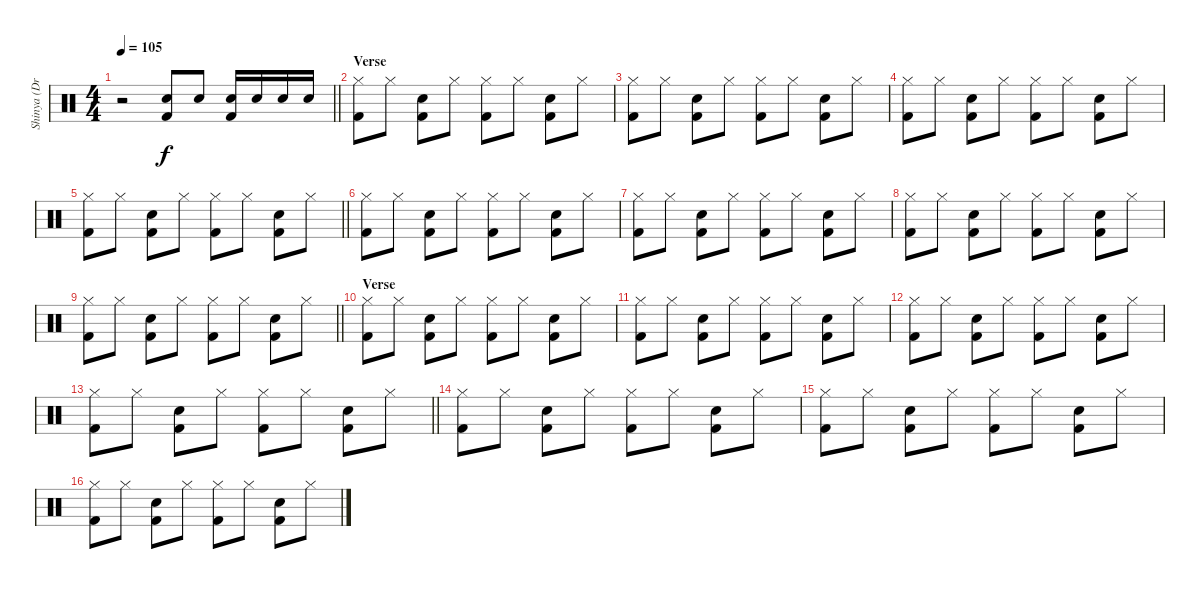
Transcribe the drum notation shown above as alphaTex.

\track ("Shinya (Drums)" "Shinya (Dr") {instrument percussion}
\staff {score}
\articulation defaults
\ts (4 4)
\tempo 105
\clef neutral
\barLineRight lightlight
\ks c
r.2{dy f} ("Snare (hit) 2" "Kick (hit) 2").8 "Snare (hit) 2".8 ("Snare (hit) 2" "Kick (hit) 2").16 "Snare (hit) 2".16 "Snare (hit) 2".16 "Snare (hit) 2".16 |
\section ("" "Verse")
("Hi-Hat (closed)" "Kick (hit) 2").8 "Hi-Hat (closed)".8 ("Snare (hit) 2" "Kick (hit) 2").8 "Hi-Hat (closed)".8 ("Hi-Hat (closed)" "Kick (hit) 2").8 "Hi-Hat (closed)".8 ("Snare (hit) 2" "Kick (hit) 2").8 "Hi-Hat (closed)".8 |
("Hi-Hat (closed)" "Kick (hit) 2").8 "Hi-Hat (closed)".8 ("Snare (hit) 2" "Kick (hit) 2").8 "Hi-Hat (closed)".8 ("Hi-Hat (closed)" "Kick (hit) 2").8 "Hi-Hat (closed)".8 ("Snare (hit) 2" "Kick (hit) 2").8 "Hi-Hat (closed)".8 |
("Hi-Hat (closed)" "Kick (hit) 2").8 "Hi-Hat (closed)".8 ("Snare (hit) 2" "Kick (hit) 2").8 "Hi-Hat (closed)".8 ("Hi-Hat (closed)" "Kick (hit) 2").8 "Hi-Hat (closed)".8 ("Snare (hit) 2" "Kick (hit) 2").8 "Hi-Hat (closed)".8 |
\barLineRight lightlight
("Hi-Hat (closed)" "Kick (hit) 2").8 "Hi-Hat (closed)".8 ("Snare (hit) 2" "Kick (hit) 2").8 "Hi-Hat (closed)".8 ("Hi-Hat (closed)" "Kick (hit) 2").8 "Hi-Hat (closed)".8 ("Snare (hit) 2" "Kick (hit) 2").8 "Hi-Hat (closed)".8 |
("Hi-Hat (closed)" "Kick (hit) 2").8 "Hi-Hat (closed)".8 ("Snare (hit) 2" "Kick (hit) 2").8 "Hi-Hat (closed)".8 ("Hi-Hat (closed)" "Kick (hit) 2").8 "Hi-Hat (closed)".8 ("Snare (hit) 2" "Kick (hit) 2").8 "Hi-Hat (closed)".8 |
("Hi-Hat (closed)" "Kick (hit) 2").8 "Hi-Hat (closed)".8 ("Snare (hit) 2" "Kick (hit) 2").8 "Hi-Hat (closed)".8 ("Hi-Hat (closed)" "Kick (hit) 2").8 "Hi-Hat (closed)".8 ("Snare (hit) 2" "Kick (hit) 2").8 "Hi-Hat (closed)".8 |
("Hi-Hat (closed)" "Kick (hit) 2").8 "Hi-Hat (closed)".8 ("Snare (hit) 2" "Kick (hit) 2").8 "Hi-Hat (closed)".8 ("Hi-Hat (closed)" "Kick (hit) 2").8 "Hi-Hat (closed)".8 ("Snare (hit) 2" "Kick (hit) 2").8 "Hi-Hat (closed)".8 |
\barLineRight lightlight
("Hi-Hat (closed)" "Kick (hit) 2").8 "Hi-Hat (closed)".8 ("Snare (hit) 2" "Kick (hit) 2").8 "Hi-Hat (closed)".8 ("Hi-Hat (closed)" "Kick (hit) 2").8 "Hi-Hat (closed)".8 ("Snare (hit) 2" "Kick (hit) 2").8 "Hi-Hat (closed)".8 |
\section ("" "Verse")
("Hi-Hat (closed)" "Kick (hit) 2").8 "Hi-Hat (closed)".8 ("Snare (hit) 2" "Kick (hit) 2").8 "Hi-Hat (closed)".8 ("Hi-Hat (closed)" "Kick (hit) 2").8 "Hi-Hat (closed)".8 ("Snare (hit) 2" "Kick (hit) 2").8 "Hi-Hat (closed)".8 |
("Hi-Hat (closed)" "Kick (hit) 2").8 "Hi-Hat (closed)".8 ("Snare (hit) 2" "Kick (hit) 2").8 "Hi-Hat (closed)".8 ("Hi-Hat (closed)" "Kick (hit) 2").8 "Hi-Hat (closed)".8 ("Snare (hit) 2" "Kick (hit) 2").8 "Hi-Hat (closed)".8 |
("Hi-Hat (closed)" "Kick (hit) 2").8 "Hi-Hat (closed)".8 ("Snare (hit) 2" "Kick (hit) 2").8 "Hi-Hat (closed)".8 ("Hi-Hat (closed)" "Kick (hit) 2").8 "Hi-Hat (closed)".8 ("Snare (hit) 2" "Kick (hit) 2").8 "Hi-Hat (closed)".8 |
\barLineRight lightlight
("Hi-Hat (closed)" "Kick (hit) 2").8 "Hi-Hat (closed)".8 ("Snare (hit) 2" "Kick (hit) 2").8 "Hi-Hat (closed)".8 ("Hi-Hat (closed)" "Kick (hit) 2").8 "Hi-Hat (closed)".8 ("Snare (hit) 2" "Kick (hit) 2").8 "Hi-Hat (closed)".8 |
("Hi-Hat (closed)" "Kick (hit) 2").8 "Hi-Hat (closed)".8 ("Snare (hit) 2" "Kick (hit) 2").8 "Hi-Hat (closed)".8 ("Hi-Hat (closed)" "Kick (hit) 2").8 "Hi-Hat (closed)".8 ("Snare (hit) 2" "Kick (hit) 2").8 "Hi-Hat (closed)".8 |
("Hi-Hat (closed)" "Kick (hit) 2").8 "Hi-Hat (closed)".8 ("Snare (hit) 2" "Kick (hit) 2").8 "Hi-Hat (closed)".8 ("Hi-Hat (closed)" "Kick (hit) 2").8 "Hi-Hat (closed)".8 ("Snare (hit) 2" "Kick (hit) 2").8 "Hi-Hat (closed)".8 |
("Hi-Hat (closed)" "Kick (hit) 2").8 "Hi-Hat (closed)".8 ("Snare (hit) 2" "Kick (hit) 2").8 "Hi-Hat (closed)".8 ("Hi-Hat (closed)" "Kick (hit) 2").8 "Hi-Hat (closed)".8 ("Snare (hit) 2" "Kick (hit) 2").8 "Hi-Hat (closed)".8
